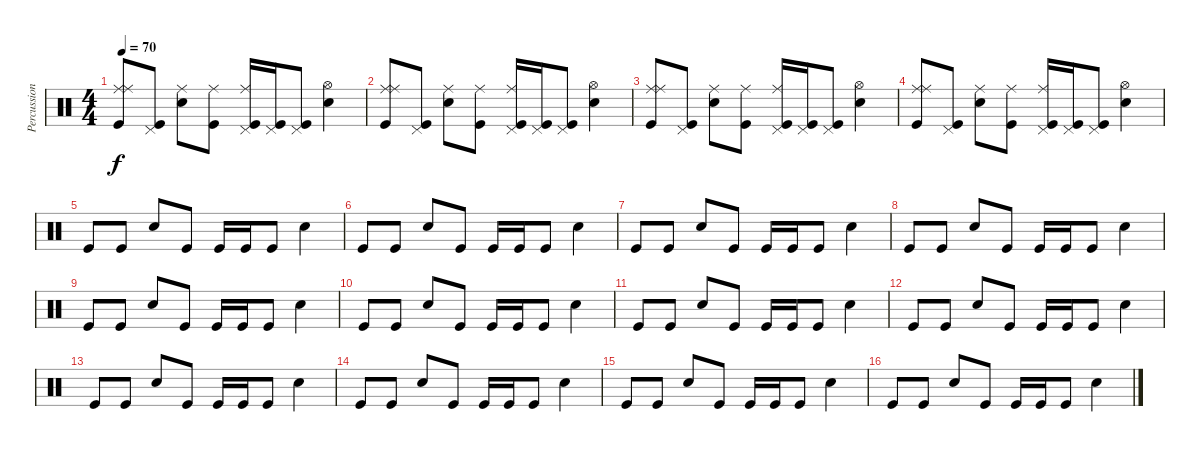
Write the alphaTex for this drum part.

\track ("Percussion" "Percussion") {instrument percussion}
\staff {score}
\articulation defaults
\ts (4 4)
\tempo 70
\clef neutral
\ks c
("Kick (hit)" "Ride (middle)" "Ride (middle)").8{dy f} ("Kick (hit)" "Pedal Hi-Hat (hit)").8 ("Hand Clap (hit)" "Ride (middle)").8 ("Kick (hit)" "Ride (middle)").8 ("Kick (hit)" "Pedal Hi-Hat (hit)" "Ride (middle)").16 ("Kick (hit)" "Pedal Hi-Hat (hit)").16 ("Kick (hit)" "Pedal Hi-Hat (hit)").8 ("Hand Clap (hit)" "Hi-Hat (open)").4 |
("Kick (hit)" "Ride (middle)" "Ride (middle)").8 ("Kick (hit)" "Pedal Hi-Hat (hit)").8 ("Hand Clap (hit)" "Ride (middle)").8 ("Kick (hit)" "Ride (middle)").8 ("Kick (hit)" "Pedal Hi-Hat (hit)" "Ride (middle)").16 ("Kick (hit)" "Pedal Hi-Hat (hit)").16 ("Kick (hit)" "Pedal Hi-Hat (hit)").8 ("Hand Clap (hit)" "Hi-Hat (open)").4 |
("Kick (hit)" "Ride (middle)" "Ride (middle)").8 ("Kick (hit)" "Pedal Hi-Hat (hit)").8 ("Hand Clap (hit)" "Ride (middle)").8 ("Kick (hit)" "Ride (middle)").8 ("Kick (hit)" "Pedal Hi-Hat (hit)" "Ride (middle)").16 ("Kick (hit)" "Pedal Hi-Hat (hit)").16 ("Kick (hit)" "Pedal Hi-Hat (hit)").8 ("Hand Clap (hit)" "Hi-Hat (open)").4 |
("Kick (hit)" "Ride (middle)" "Ride (middle)").8 ("Kick (hit)" "Pedal Hi-Hat (hit)").8 ("Hand Clap (hit)" "Ride (middle)").8 ("Kick (hit)" "Ride (middle)").8 ("Kick (hit)" "Pedal Hi-Hat (hit)" "Ride (middle)").16 ("Kick (hit)" "Pedal Hi-Hat (hit)").16 ("Kick (hit)" "Pedal Hi-Hat (hit)").8 ("Hand Clap (hit)" "Hi-Hat (open)").4 |
"Kick (hit)".8 "Kick (hit)".8 "Hand Clap (hit)".8 "Kick (hit)".8 "Kick (hit)".16 "Kick (hit)".16 "Kick (hit)".8 "Hand Clap (hit)".4 |
"Kick (hit)".8 "Kick (hit)".8 "Hand Clap (hit)".8 "Kick (hit)".8 "Kick (hit)".16 "Kick (hit)".16 "Kick (hit)".8 "Hand Clap (hit)".4 |
"Kick (hit)".8 "Kick (hit)".8 "Hand Clap (hit)".8 "Kick (hit)".8 "Kick (hit)".16 "Kick (hit)".16 "Kick (hit)".8 "Hand Clap (hit)".4 |
"Kick (hit)".8 "Kick (hit)".8 "Hand Clap (hit)".8 "Kick (hit)".8 "Kick (hit)".16 "Kick (hit)".16 "Kick (hit)".8 "Hand Clap (hit)".4 |
"Kick (hit)".8 "Kick (hit)".8 "Hand Clap (hit)".8 "Kick (hit)".8 "Kick (hit)".16 "Kick (hit)".16 "Kick (hit)".8 "Hand Clap (hit)".4 |
"Kick (hit)".8 "Kick (hit)".8 "Hand Clap (hit)".8 "Kick (hit)".8 "Kick (hit)".16 "Kick (hit)".16 "Kick (hit)".8 "Hand Clap (hit)".4 |
"Kick (hit)".8 "Kick (hit)".8 "Hand Clap (hit)".8 "Kick (hit)".8 "Kick (hit)".16 "Kick (hit)".16 "Kick (hit)".8 "Hand Clap (hit)".4 |
"Kick (hit)".8 "Kick (hit)".8 "Hand Clap (hit)".8 "Kick (hit)".8 "Kick (hit)".16 "Kick (hit)".16 "Kick (hit)".8 "Hand Clap (hit)".4 |
"Kick (hit)".8 "Kick (hit)".8 "Hand Clap (hit)".8 "Kick (hit)".8 "Kick (hit)".16 "Kick (hit)".16 "Kick (hit)".8 "Hand Clap (hit)".4 |
"Kick (hit)".8 "Kick (hit)".8 "Hand Clap (hit)".8 "Kick (hit)".8 "Kick (hit)".16 "Kick (hit)".16 "Kick (hit)".8 "Hand Clap (hit)".4 |
"Kick (hit)".8 "Kick (hit)".8 "Hand Clap (hit)".8 "Kick (hit)".8 "Kick (hit)".16 "Kick (hit)".16 "Kick (hit)".8 "Hand Clap (hit)".4 |
"Kick (hit)".8 "Kick (hit)".8 "Hand Clap (hit)".8 "Kick (hit)".8 "Kick (hit)".16 "Kick (hit)".16 "Kick (hit)".8 "Hand Clap (hit)".4
